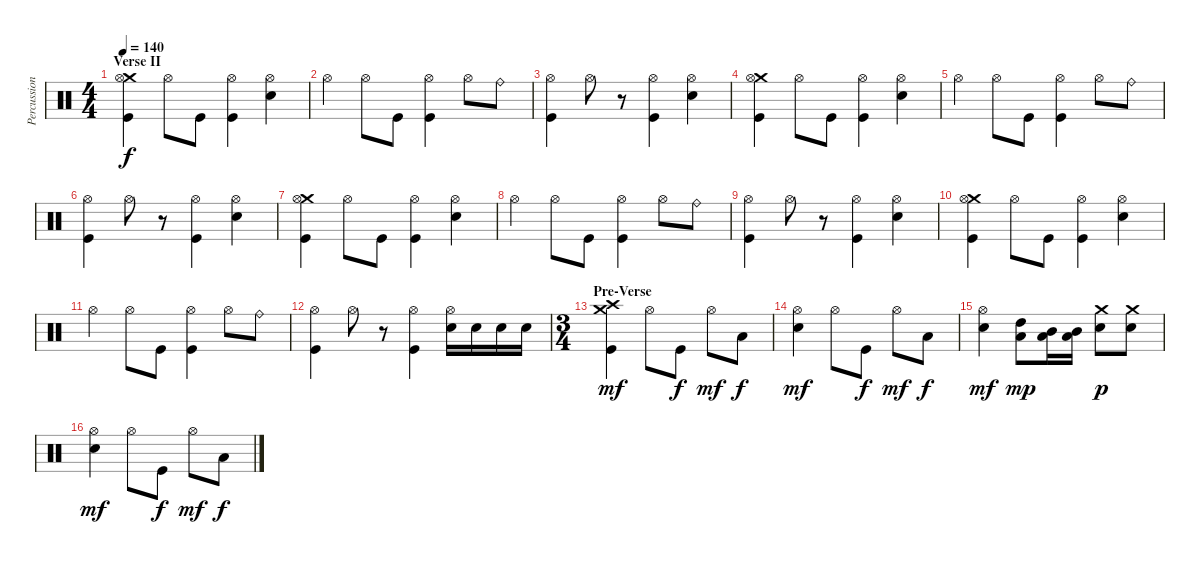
\track ("Percussion" "Percussion") {instrument percussion}
\staff {score}
\articulation defaults
\ts (4 4)
\section ("" "Verse II")
\tempo 140
\clef neutral
\ks c
("Crash medium (hit)" "Hi-Hat (open)" "Kick (hit)").4{dy f} "Hi-Hat (open)".8 "Kick (hit)".8 ("Hi-Hat (open)" "Kick (hit)").4 ("Hi-Hat (open)" "Electric Snare (hit)").4 |
"Hi-Hat (open)".4 "Hi-Hat (open)".8 "Kick (hit)".8 ("Hi-Hat (open)" "Kick (hit)").4 "Hi-Hat (open)".8 "Ride (bell)".8 |
("Hi-Hat (open)" "Kick (hit)").4 "Hi-Hat (open)".8 r.8 ("Hi-Hat (open)" "Kick (hit)").4 ("Hi-Hat (open)" "Electric Snare (hit)").4 |
("Crash medium (hit)" "Hi-Hat (open)" "Kick (hit)").4 "Hi-Hat (open)".8 "Kick (hit)".8 ("Hi-Hat (open)" "Kick (hit)").4 ("Hi-Hat (open)" "Electric Snare (hit)").4 |
"Hi-Hat (open)".4 "Hi-Hat (open)".8 "Kick (hit)".8 ("Hi-Hat (open)" "Kick (hit)").4 "Hi-Hat (open)".8 "Ride (bell)".8 |
("Hi-Hat (open)" "Kick (hit)").4 "Hi-Hat (open)".8 r.8 ("Hi-Hat (open)" "Kick (hit)").4 ("Hi-Hat (open)" "Electric Snare (hit)").4 |
("Crash medium (hit)" "Hi-Hat (open)" "Kick (hit)").4 "Hi-Hat (open)".8 "Kick (hit)".8 ("Hi-Hat (open)" "Kick (hit)").4 ("Hi-Hat (open)" "Electric Snare (hit)").4 |
"Hi-Hat (open)".4 "Hi-Hat (open)".8 "Kick (hit)".8 ("Hi-Hat (open)" "Kick (hit)").4 "Hi-Hat (open)".8 "Ride (bell)".8 |
("Hi-Hat (open)" "Kick (hit)").4 "Hi-Hat (open)".8 r.8 ("Hi-Hat (open)" "Kick (hit)").4 ("Hi-Hat (open)" "Electric Snare (hit)").4 |
("Crash medium (hit)" "Hi-Hat (open)" "Kick (hit)").4 "Hi-Hat (open)".8 "Kick (hit)".8 ("Hi-Hat (open)" "Kick (hit)").4 ("Hi-Hat (open)" "Electric Snare (hit)").4 |
"Hi-Hat (open)".4 "Hi-Hat (open)".8 "Kick (hit)".8 ("Hi-Hat (open)" "Kick (hit)").4 "Hi-Hat (open)".8 "Ride (bell)".8 |
("Hi-Hat (open)" "Kick (hit)").4 "Hi-Hat (open)".8 r.8 ("Hi-Hat (open)" "Kick (hit)").4 ("Hi-Hat (open)" "Electric Snare (hit)").16 "Electric Snare (hit)".16 "Electric Snare (hit)".16 "Electric Snare (hit)".16 |
\ts (3 4)
\section ("" "Pre-Verse")
("Kick (hit)" "Crash high (hit)" "Crash medium (hit)").4{dy mf} "Hi-Hat (open)".8 "Kick (hit)".8{dy f} "Hi-Hat (open)".8{dy mf} "Low Floor Tom (hit)".8{dy f} |
("Electric Snare (hit)" "Hi-Hat (open)").4{dy mf} "Hi-Hat (open)".8 "Kick (hit)".8{dy f} "Hi-Hat (open)".8{dy mf} "Low Floor Tom (hit)".8{dy f} |
("Electric Snare (hit)" "Hi-Hat (open)").4{dy mf} ("Low Tom (hit)" "High Tom (hit)").8{dy mp} ("Low Tom (hit)" "Mid Tom (hit)").16 ("Low Tom (hit)" "Mid Tom (hit)").16 ("Electric Snare (hit)" "Crash medium (hit)").8{dy p} ("Electric Snare (hit)" "Crash medium (hit)").8 |
("Electric Snare (hit)" "Hi-Hat (open)").4{dy mf} "Hi-Hat (open)".8 "Kick (hit)".8{dy f} "Hi-Hat (open)".8{dy mf} "Low Floor Tom (hit)".8{dy f}
